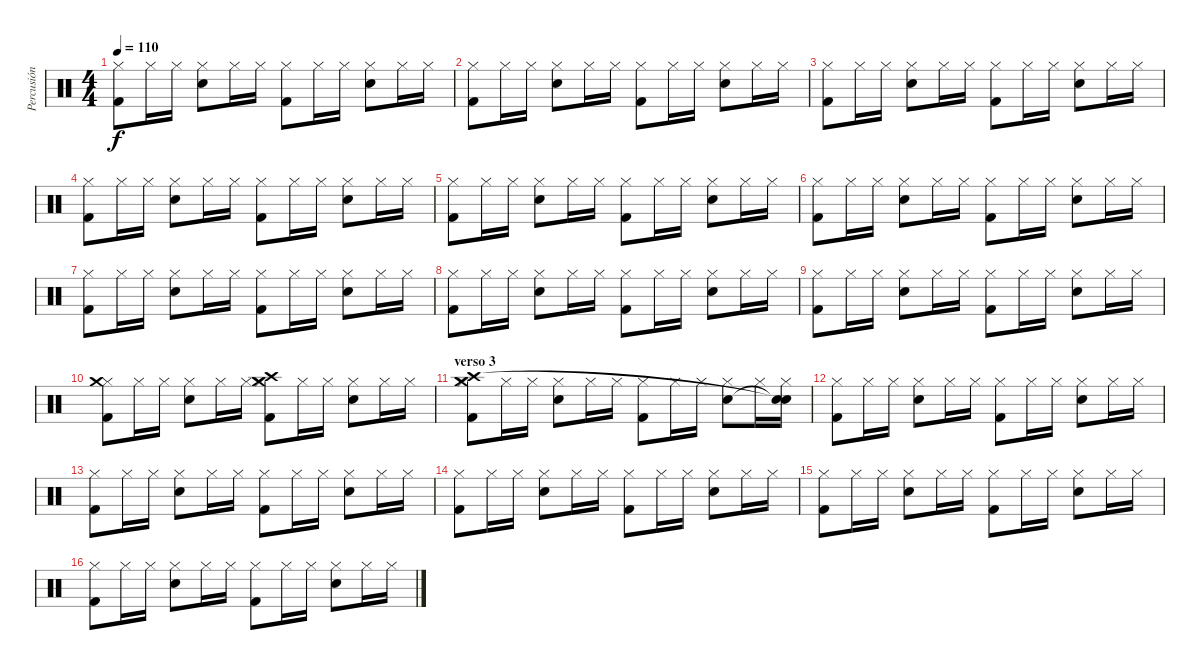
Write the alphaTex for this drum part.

\track ("Percusión" "Percusión") {instrument percussion}
\staff {score}
\articulation defaults
\ts (4 4)
\tempo 110
\clef neutral
\ks c
("Hi-Hat (closed)" "Kick (hit) 2").8{dy f} "Hi-Hat (closed)".16 "Hi-Hat (closed)".16 ("Hi-Hat (closed)" "Snare (hit) 2").8 "Hi-Hat (closed)".16 "Hi-Hat (closed)".16 ("Hi-Hat (closed)" "Kick (hit) 2").8 "Hi-Hat (closed)".16 "Hi-Hat (closed)".16 ("Hi-Hat (closed)" "Snare (hit) 2").8 "Hi-Hat (closed)".16 "Hi-Hat (closed)".16 |
("Hi-Hat (closed)" "Kick (hit) 2").8 "Hi-Hat (closed)".16 "Hi-Hat (closed)".16 ("Hi-Hat (closed)" "Snare (hit) 2").8 "Hi-Hat (closed)".16 "Hi-Hat (closed)".16 ("Hi-Hat (closed)" "Kick (hit) 2").8 "Hi-Hat (closed)".16 "Hi-Hat (closed)".16 ("Hi-Hat (closed)" "Snare (hit) 2").8 "Hi-Hat (closed)".16 "Hi-Hat (closed)".16 |
("Hi-Hat (closed)" "Kick (hit) 2").8 "Hi-Hat (closed)".16 "Hi-Hat (closed)".16 ("Hi-Hat (closed)" "Snare (hit) 2").8 "Hi-Hat (closed)".16 "Hi-Hat (closed)".16 ("Hi-Hat (closed)" "Kick (hit) 2").8 "Hi-Hat (closed)".16 "Hi-Hat (closed)".16 ("Hi-Hat (closed)" "Snare (hit) 2").8 "Hi-Hat (closed)".16 "Hi-Hat (closed)".16 |
("Hi-Hat (closed)" "Kick (hit) 2").8 "Hi-Hat (closed)".16 "Hi-Hat (closed)".16 ("Hi-Hat (closed)" "Snare (hit) 2").8 "Hi-Hat (closed)".16 "Hi-Hat (closed)".16 ("Hi-Hat (closed)" "Kick (hit) 2").8 "Hi-Hat (closed)".16 "Hi-Hat (closed)".16 ("Hi-Hat (closed)" "Snare (hit) 2").8 "Hi-Hat (closed)".16 "Hi-Hat (closed)".16 |
("Hi-Hat (closed)" "Kick (hit) 2").8 "Hi-Hat (closed)".16 "Hi-Hat (closed)".16 ("Hi-Hat (closed)" "Snare (hit) 2").8 "Hi-Hat (closed)".16 "Hi-Hat (closed)".16 ("Hi-Hat (closed)" "Kick (hit) 2").8 "Hi-Hat (closed)".16 "Hi-Hat (closed)".16 ("Hi-Hat (closed)" "Snare (hit) 2").8 "Hi-Hat (closed)".16 "Hi-Hat (closed)".16 |
("Hi-Hat (closed)" "Kick (hit) 2").8 "Hi-Hat (closed)".16 "Hi-Hat (closed)".16 ("Hi-Hat (closed)" "Snare (hit) 2").8 "Hi-Hat (closed)".16 "Hi-Hat (closed)".16 ("Hi-Hat (closed)" "Kick (hit) 2").8 "Hi-Hat (closed)".16 "Hi-Hat (closed)".16 ("Hi-Hat (closed)" "Snare (hit) 2").8 "Hi-Hat (closed)".16 "Hi-Hat (closed)".16 |
("Hi-Hat (closed)" "Kick (hit) 2").8 "Hi-Hat (closed)".16 "Hi-Hat (closed)".16 ("Hi-Hat (closed)" "Snare (hit) 2").8 "Hi-Hat (closed)".16 "Hi-Hat (closed)".16 ("Hi-Hat (closed)" "Kick (hit) 2").8 "Hi-Hat (closed)".16 "Hi-Hat (closed)".16 ("Hi-Hat (closed)" "Snare (hit) 2").8 "Hi-Hat (closed)".16 "Hi-Hat (closed)".16 |
("Hi-Hat (closed)" "Kick (hit) 2").8 "Hi-Hat (closed)".16 "Hi-Hat (closed)".16 ("Hi-Hat (closed)" "Snare (hit) 2").8 "Hi-Hat (closed)".16 "Hi-Hat (closed)".16 ("Hi-Hat (closed)" "Kick (hit) 2").8 "Hi-Hat (closed)".16 "Hi-Hat (closed)".16 ("Hi-Hat (closed)" "Snare (hit) 2").8 "Hi-Hat (closed)".16 "Hi-Hat (closed)".16 |
("Hi-Hat (closed)" "Kick (hit) 2").8 "Hi-Hat (closed)".16 "Hi-Hat (closed)".16 ("Hi-Hat (closed)" "Snare (hit) 2").8 "Hi-Hat (closed)".16 "Hi-Hat (closed)".16 ("Hi-Hat (closed)" "Kick (hit) 2").8 "Hi-Hat (closed)".16 "Hi-Hat (closed)".16 ("Hi-Hat (closed)" "Snare (hit) 2").8 "Hi-Hat (closed)".16 "Hi-Hat (closed)".16 |
("Hi-Hat (closed)" "Kick (hit) 2" "Crash medium (hit)").8 "Hi-Hat (closed)".16 "Hi-Hat (closed)".16 ("Hi-Hat (closed)" "Snare (hit) 2").8 "Hi-Hat (closed)".16 "Hi-Hat (closed)".16 ("Hi-Hat (closed)" "Kick (hit) 2" "Crash high (hit)" "Crash medium (hit)").8 "Hi-Hat (closed)".16 "Hi-Hat (closed)".16 ("Hi-Hat (closed)" "Snare (hit) 2").8 "Hi-Hat (closed)".16 "Hi-Hat (closed)".16 |
\section ("" "verso 3")
("Hi-Hat (closed)" "Kick (hit) 2" "Crash high (hit)" "Crash medium (hit)").8 "Hi-Hat (closed)".16 "Hi-Hat (closed)".16 ("Hi-Hat (closed)" "Snare (hit) 2").8 "Hi-Hat (closed)".16 "Hi-Hat (closed)".16 ("Hi-Hat (closed)" "Kick (hit) 2").8 "Hi-Hat (closed)".16 "Hi-Hat (closed)".16 ("Hi-Hat (closed)" "Snare (hit) 2").8 "Hi-Hat (closed)".16 ("Hi-Hat (closed)" "Snare (hit)"{t} "Snare (hit)"{t}).16 |
("Hi-Hat (closed)" "Kick (hit) 2").8 "Hi-Hat (closed)".16 "Hi-Hat (closed)".16 ("Hi-Hat (closed)" "Snare (hit) 2").8 "Hi-Hat (closed)".16 "Hi-Hat (closed)".16 ("Hi-Hat (closed)" "Kick (hit) 2").8 "Hi-Hat (closed)".16 "Hi-Hat (closed)".16 ("Hi-Hat (closed)" "Snare (hit) 2").8 "Hi-Hat (closed)".16 "Hi-Hat (closed)".16 |
("Hi-Hat (closed)" "Kick (hit) 2").8 "Hi-Hat (closed)".16 "Hi-Hat (closed)".16 ("Hi-Hat (closed)" "Snare (hit) 2").8 "Hi-Hat (closed)".16 "Hi-Hat (closed)".16 ("Hi-Hat (closed)" "Kick (hit) 2").8 "Hi-Hat (closed)".16 "Hi-Hat (closed)".16 ("Hi-Hat (closed)" "Snare (hit) 2").8 "Hi-Hat (closed)".16 "Hi-Hat (closed)".16 |
("Hi-Hat (closed)" "Kick (hit) 2").8 "Hi-Hat (closed)".16 "Hi-Hat (closed)".16 ("Hi-Hat (closed)" "Snare (hit) 2").8 "Hi-Hat (closed)".16 "Hi-Hat (closed)".16 ("Hi-Hat (closed)" "Kick (hit) 2").8 "Hi-Hat (closed)".16 "Hi-Hat (closed)".16 ("Hi-Hat (closed)" "Snare (hit) 2").8 "Hi-Hat (closed)".16 "Hi-Hat (closed)".16 |
("Hi-Hat (closed)" "Kick (hit) 2").8 "Hi-Hat (closed)".16 "Hi-Hat (closed)".16 ("Hi-Hat (closed)" "Snare (hit) 2").8 "Hi-Hat (closed)".16 "Hi-Hat (closed)".16 ("Hi-Hat (closed)" "Kick (hit) 2").8 "Hi-Hat (closed)".16 "Hi-Hat (closed)".16 ("Hi-Hat (closed)" "Snare (hit) 2").8 "Hi-Hat (closed)".16 "Hi-Hat (closed)".16 |
("Hi-Hat (closed)" "Kick (hit) 2").8 "Hi-Hat (closed)".16 "Hi-Hat (closed)".16 ("Hi-Hat (closed)" "Snare (hit) 2").8 "Hi-Hat (closed)".16 "Hi-Hat (closed)".16 ("Hi-Hat (closed)" "Kick (hit) 2").8 "Hi-Hat (closed)".16 "Hi-Hat (closed)".16 ("Hi-Hat (closed)" "Snare (hit) 2").8 "Hi-Hat (closed)".16 "Hi-Hat (closed)".16
